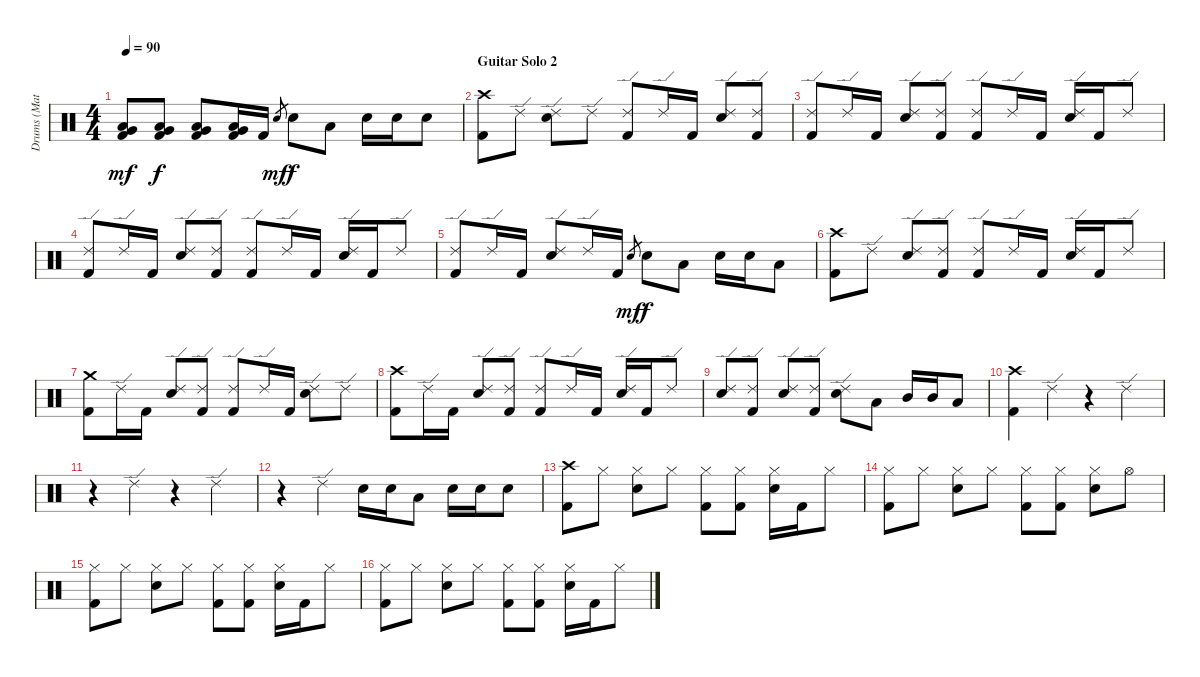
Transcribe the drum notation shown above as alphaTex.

\track ("Drums (Matt)" "Drums (Mat") {instrument percussion}
\staff {score}
\articulation defaults
\ts (4 4)
\tempo 90
\clef neutral
\ks c
("Low Tom (hit)" "Very Low Tom (hit)" "Kick (hit) 2").8{dy mf} ("Low Tom (hit)" "Very Low Tom (hit)" "Kick (hit) 2").8{dy f} ("Low Tom (hit)" "Very Low Tom (hit)" "Kick (hit) 2").8 ("Low Tom (hit)" "Very Low Tom (hit)" "Kick (hit) 2").16 "Kick (hit) 2".16 "Snare (hit)".8{gr dy mf} "Snare (hit) 2".8{dy f} "Low Tom (hit)".8 "Snare (hit) 2".16 "Snare (hit) 2".16 "Snare (hit) 2".8 |
\section ("" "Guitar Solo 2")
("Crash high (hit)" "Kick (hit) 2").8 "Ride (edge) 2".8 ("Ride (edge) 2" "Snare (hit) 2").8 "Ride (edge) 2".8 ("Ride (edge) 2" "Kick (hit) 2").8 "Ride (edge) 2".16 "Kick (hit) 2".16 ("Ride (edge) 2" "Snare (hit) 2").8 ("Ride (edge) 2" "Kick (hit) 2").8 |
("Ride (edge) 2" "Kick (hit) 2").8 "Ride (edge) 2".16 "Kick (hit) 2".16 ("Ride (edge) 2" "Snare (hit) 2").8 ("Ride (edge) 2" "Kick (hit) 2").8 ("Ride (edge) 2" "Kick (hit) 2").8 "Ride (edge) 2".16 "Kick (hit) 2".16 ("Ride (edge) 2" "Snare (hit) 2").16 "Kick (hit) 2".16 "Ride (edge) 2".8 |
("Ride (edge) 2" "Kick (hit) 2").8 "Ride (edge) 2".16 "Kick (hit) 2".16 ("Ride (edge) 2" "Snare (hit) 2").8 ("Ride (edge) 2" "Kick (hit) 2").8 ("Ride (edge) 2" "Kick (hit) 2").8 "Ride (edge) 2".16 "Kick (hit) 2".16 ("Ride (edge) 2" "Snare (hit) 2").16 "Kick (hit) 2".16 "Ride (edge) 2".8 |
("Ride (edge) 2" "Kick (hit) 2").8 "Ride (edge) 2".16 "Kick (hit) 2".16 ("Ride (edge) 2" "Snare (hit) 2").8 "Ride (edge) 2".16 "Kick (hit) 2".16 "Snare (hit)".8{gr dy mf} "Snare (hit) 2".8{dy f} "Low Tom (hit)".8 "Snare (hit) 2".16 "Snare (hit) 2".16 "Low Tom (hit)".8 |
("Crash high (hit)" "Kick (hit) 2").8 "Ride (edge) 2".8 ("Ride (edge) 2" "Snare (hit) 2").8 ("Ride (edge) 2" "Kick (hit) 2").8 ("Ride (edge) 2" "Kick (hit) 2").8 "Ride (edge) 2".16 "Kick (hit) 2".16 ("Ride (edge) 2" "Snare (hit) 2").16 "Kick (hit) 2".16 "Ride (edge) 2".8 |
("Crash medium (hit)" "Kick (hit) 2").8 "Ride (edge) 2".16 "Kick (hit) 2".16 ("Ride (edge) 2" "Snare (hit) 2").8 ("Ride (edge) 2" "Kick (hit) 2").8 ("Ride (edge) 2" "Kick (hit) 2").8 "Ride (edge) 2".16 "Kick (hit) 2".16 ("Ride (edge) 2" "Snare (hit) 2").8 "Ride (edge) 2".8 |
("Crash high (hit)" "Kick (hit) 2").8 "Ride (edge) 2".16 "Kick (hit) 2".16 ("Ride (edge) 2" "Snare (hit) 2").8 ("Ride (edge) 2" "Kick (hit) 2").8 ("Ride (edge) 2" "Kick (hit) 2").8 "Ride (edge) 2".16 "Kick (hit) 2".16 ("Ride (edge) 2" "Snare (hit) 2").16 "Kick (hit) 2".16 "Ride (edge) 2".8 |
("Ride (edge) 2" "Snare (hit) 2").8 ("Ride (edge) 2" "Kick (hit) 2").8 ("Ride (edge) 2" "Snare (hit) 2").8 ("Ride (edge) 2" "Kick (hit) 2").8 ("Ride (edge) 2" "Snare (hit) 2").8 "Low Tom (hit)".8 "Mid Tom (hit)".16 "Mid Tom (hit)".16 "Low Tom (hit)".8 |
("Crash high (hit)" "Kick (hit) 2").4 "Ride (edge) 2".4 r.4 "Ride (edge) 2".4 |
r.4 "Ride (edge) 2".4 r.4 "Ride (edge) 2".4 |
r.4 "Ride (edge) 2".4 "Snare (hit) 2".16 "Snare (hit) 2".16 "Low Tom (hit)".8 "Snare (hit) 2".16 "Snare (hit) 2".16 "Snare (hit) 2".8 |
("Crash high (hit)" "Kick (hit) 2").8 "Hi-Hat (closed)".8 ("Hi-Hat (closed)" "Snare (hit) 2").8 "Hi-Hat (closed)".8 ("Hi-Hat (closed)" "Kick (hit) 2").8 ("Hi-Hat (closed)" "Kick (hit) 2").8 ("Hi-Hat (closed)" "Snare (hit) 2").16 "Kick (hit) 2".16 "Hi-Hat (closed)".8 |
("Hi-Hat (closed)" "Kick (hit) 2").8 "Hi-Hat (closed)".8 ("Hi-Hat (closed)" "Snare (hit) 2").8 "Hi-Hat (closed)".8 ("Hi-Hat (closed)" "Kick (hit) 2").8 ("Hi-Hat (closed)" "Kick (hit) 2").8 ("Hi-Hat (closed)" "Snare (hit) 2").8 "Hi-Hat (open)".8 |
("Hi-Hat (closed)" "Kick (hit) 2").8 "Hi-Hat (closed)".8 ("Hi-Hat (closed)" "Snare (hit) 2").8 "Hi-Hat (closed)".8 ("Hi-Hat (closed)" "Kick (hit) 2").8 ("Hi-Hat (closed)" "Kick (hit) 2").8 ("Hi-Hat (closed)" "Snare (hit) 2").16 "Kick (hit) 2".16 "Hi-Hat (closed)".8 |
("Hi-Hat (closed)" "Kick (hit) 2").8 "Hi-Hat (closed)".8 ("Hi-Hat (closed)" "Snare (hit) 2").8 "Hi-Hat (closed)".8 ("Hi-Hat (closed)" "Kick (hit) 2").8 ("Hi-Hat (closed)" "Kick (hit) 2").8 ("Hi-Hat (closed)" "Snare (hit) 2").16 "Kick (hit) 2".16 "Hi-Hat (closed)".8
